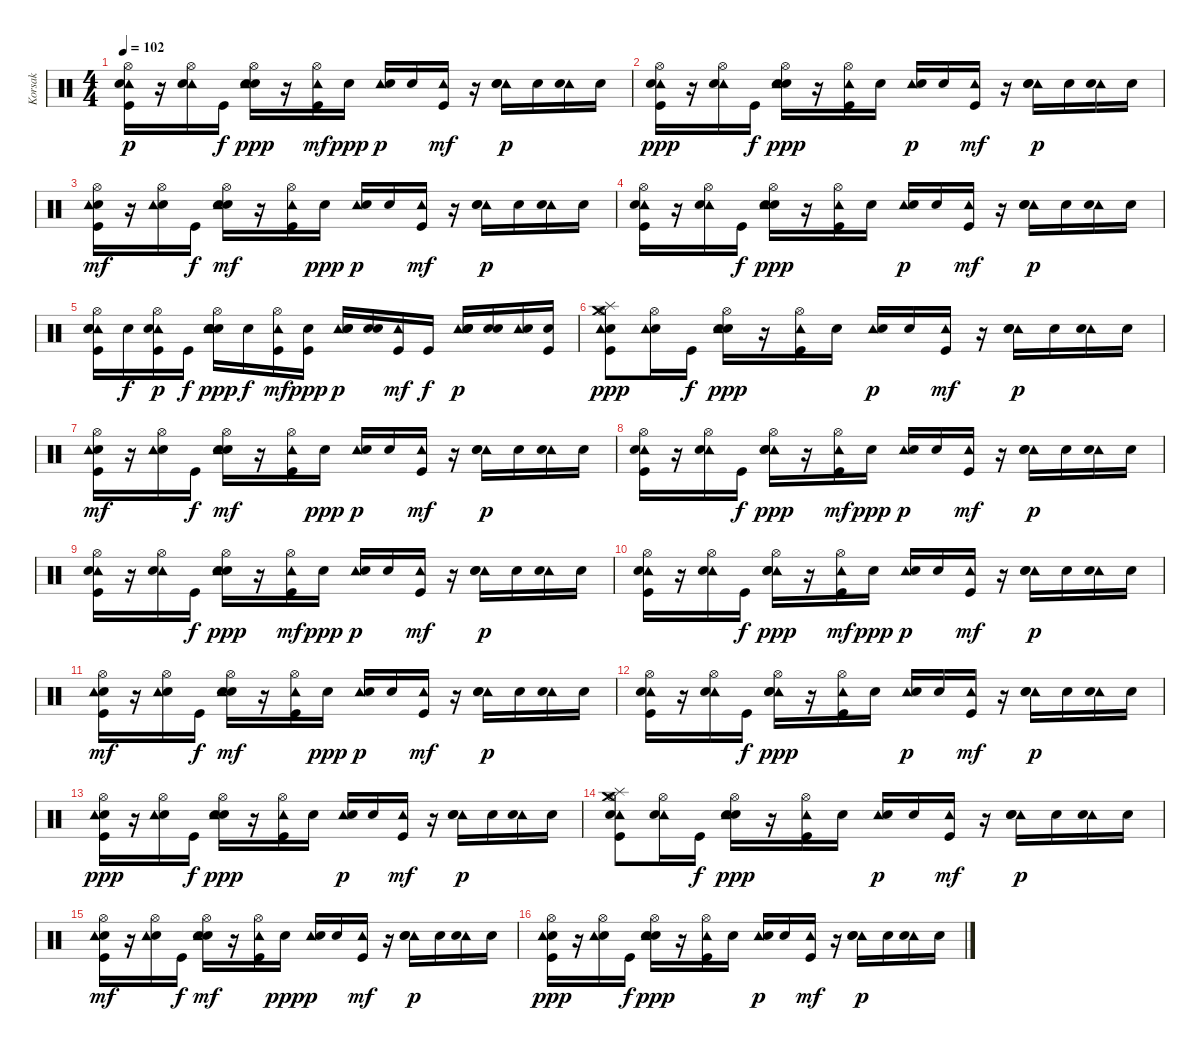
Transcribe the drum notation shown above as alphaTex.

\track ("Korsak" "Korsak") {instrument percussion}
\staff {score}
\articulation defaults
\ts (4 4)
\tempo 102
\clef neutral
\ks c
("Hi-Hat (open)" "Kick (hit)" "Tambourine (hit)" "Electric Snare (hit)").16{dy p} r.16 ("Hi-Hat (open)" "Tambourine (hit)" "Electric Snare (hit)").16 "Kick (hit)".16{dy f} ("Hi-Hat (open)" "Snare (hit) 2" "Tambourine (hit)" "Electric Snare (hit)").16{dy ppp} r.16 ("Hi-Hat (open)" "Kick (hit)" "Tambourine (hit)").16{dy mf} "Electric Snare (hit)".16{dy ppp} ("Tambourine (hit)" "Electric Snare (hit)").16{dy p} "Electric Snare (hit)".16 ("Kick (hit)" "Tambourine (hit)").16{dy mf} r.16 ("Tambourine (hit)" "Electric Snare (hit)" "Snare (hit) 2").16{dy p} "Electric Snare (hit)".16 ("Tambourine (hit)" "Electric Snare (hit)").16 "Electric Snare (hit)".16 |
("Kick (hit)" "Tambourine (hit)" "Electric Snare (hit)" "Hi-Hat (open)").16{dy ppp} r.16 ("Tambourine (hit)" "Electric Snare (hit)" "Hi-Hat (open)").16 "Kick (hit)".16{dy f} ("Snare (hit) 2" "Tambourine (hit)" "Electric Snare (hit)" "Hi-Hat (open)").16{dy ppp} r.16 ("Kick (hit)" "Tambourine (hit)" "Hi-Hat (open)").16 "Electric Snare (hit)".16 ("Tambourine (hit)" "Electric Snare (hit)").16{dy p} "Electric Snare (hit)".16 ("Kick (hit)" "Tambourine (hit)").16{dy mf} r.16 ("Tambourine (hit)" "Electric Snare (hit)" "Snare (hit) 2").16{dy p} "Electric Snare (hit)".16 ("Tambourine (hit)" "Electric Snare (hit)").16 "Electric Snare (hit)".16 |
("Hi-Hat (open)" "Electric Snare (hit)" "Kick (hit)" "Tambourine (hit)").16{dy mf} r.16 ("Hi-Hat (open)" "Electric Snare (hit)" "Tambourine (hit)").16 "Kick (hit)".16{dy f} ("Hi-Hat (open)" "Electric Snare (hit)" "Snare (hit) 2" "Tambourine (hit)").16{dy mf} r.16 ("Hi-Hat (open)" "Kick (hit)" "Tambourine (hit)").16 "Electric Snare (hit)".16{dy ppp} ("Tambourine (hit)" "Electric Snare (hit)").16{dy p} "Electric Snare (hit)".16 ("Kick (hit)" "Tambourine (hit)").16{dy mf} r.16 ("Tambourine (hit)" "Electric Snare (hit)" "Snare (hit) 2").16{dy p} "Electric Snare (hit)".16 ("Tambourine (hit)" "Electric Snare (hit)").16 "Electric Snare (hit)".16 |
("Kick (hit)" "Tambourine (hit)" "Hi-Hat (open)" "Electric Snare (hit)").16 r.16 ("Tambourine (hit)" "Hi-Hat (open)" "Electric Snare (hit)").16 "Kick (hit)".16{dy f} ("Snare (hit) 2" "Tambourine (hit)" "Hi-Hat (open)" "Electric Snare (hit)").16{dy ppp} r.16 ("Kick (hit)" "Tambourine (hit)" "Hi-Hat (open)").16 "Electric Snare (hit)".16 ("Tambourine (hit)" "Electric Snare (hit)").16{dy p} "Electric Snare (hit)".16 ("Kick (hit)" "Tambourine (hit)").16{dy mf} r.16 ("Tambourine (hit)" "Electric Snare (hit)" "Snare (hit) 2").16{dy p} "Electric Snare (hit)".16 ("Tambourine (hit)" "Electric Snare (hit)").16 "Electric Snare (hit)".16 |
("Kick (hit)" "Hi-Hat (open)" "Tambourine (hit)" "Electric Snare (hit)" "Snare (hit) 2").16 "Snare (hit) 2".16{dy f} ("Kick (hit)" "Hi-Hat (open)" "Tambourine (hit)" "Electric Snare (hit)").16{dy p} "Kick (hit)".16{dy f} ("Snare (hit) 2" "Hi-Hat (open)" "Tambourine (hit)" "Electric Snare (hit)" "Snare (hit) 2").16{dy ppp} "Snare (hit) 2".16{dy f} ("Kick (hit)" "Hi-Hat (open)" "Tambourine (hit)").16{dy mf} ("Kick (hit)" "Electric Snare (hit)").16{dy ppp} ("Tambourine (hit)" "Snare (hit) 2" "Electric Snare (hit)").16{dy p} ("Snare (hit) 2" "Electric Snare (hit)").16 ("Kick (hit)" "Tambourine (hit)").16{dy mf} "Kick (hit)".16{dy f} ("Tambourine (hit)" "Snare (hit) 2" "Electric Snare (hit)" "Snare (hit) 2").16{dy p} ("Snare (hit) 2" "Electric Snare (hit)").16 ("Tambourine (hit)" "Electric Snare (hit)").16 ("Kick (hit)" "Electric Snare (hit)").16 |
("Electric Snare (hit)" "Splash (hit)" "Crash medium (hit)" "Kick (hit)" "Tambourine (hit)" "Hi-Hat (open)").8{dy ppp} ("Electric Snare (hit)" "Tambourine (hit)" "Hi-Hat (open)").16 "Kick (hit)".16{dy f} ("Electric Snare (hit)" "Snare (hit) 2" "Tambourine (hit)" "Hi-Hat (open)").16{dy ppp} r.16 ("Kick (hit)" "Tambourine (hit)" "Hi-Hat (open)").16 "Electric Snare (hit)".16 ("Tambourine (hit)" "Electric Snare (hit)").16{dy p} "Electric Snare (hit)".16 ("Kick (hit)" "Tambourine (hit)").16{dy mf} r.16 ("Tambourine (hit)" "Electric Snare (hit)" "Snare (hit) 2").16{dy p} "Electric Snare (hit)".16 ("Tambourine (hit)" "Electric Snare (hit)").16 "Electric Snare (hit)".16 |
("Hi-Hat (open)" "Electric Snare (hit)" "Kick (hit)" "Tambourine (hit)").16{dy mf} r.16 ("Hi-Hat (open)" "Electric Snare (hit)" "Tambourine (hit)").16 "Kick (hit)".16{dy f} ("Hi-Hat (open)" "Electric Snare (hit)" "Snare (hit) 2" "Tambourine (hit)").16{dy mf} r.16 ("Hi-Hat (open)" "Kick (hit)" "Tambourine (hit)").16 "Electric Snare (hit)".16{dy ppp} ("Tambourine (hit)" "Electric Snare (hit)").16{dy p} "Electric Snare (hit)".16 ("Kick (hit)" "Tambourine (hit)").16{dy mf} r.16 ("Tambourine (hit)" "Electric Snare (hit)" "Snare (hit) 2").16{dy p} "Electric Snare (hit)".16 ("Tambourine (hit)" "Electric Snare (hit)").16 "Electric Snare (hit)".16 |
("Hi-Hat (open)" "Tambourine (hit)" "Electric Snare (hit)" "Kick (hit)").16 r.16 ("Hi-Hat (open)" "Tambourine (hit)" "Electric Snare (hit)").16 "Kick (hit)".16{dy f} ("Hi-Hat (open)" "Tambourine (hit)" "Electric Snare (hit)" "Snare (hit) 2").16{dy ppp} r.16 ("Hi-Hat (open)" "Tambourine (hit)" "Kick (hit)").16{dy mf} "Electric Snare (hit)".16{dy ppp} ("Tambourine (hit)" "Electric Snare (hit)").16{dy p} "Electric Snare (hit)".16 ("Tambourine (hit)" "Kick (hit)").16{dy mf} r.16 ("Tambourine (hit)" "Electric Snare (hit)" "Snare (hit) 2").16{dy p} "Electric Snare (hit)".16 ("Tambourine (hit)" "Electric Snare (hit)").16 "Electric Snare (hit)".16 |
("Hi-Hat (open)" "Kick (hit)" "Tambourine (hit)" "Electric Snare (hit)").16 r.16 ("Hi-Hat (open)" "Tambourine (hit)" "Electric Snare (hit)").16 "Kick (hit)".16{dy f} ("Hi-Hat (open)" "Snare (hit) 2" "Tambourine (hit)" "Electric Snare (hit)").16{dy ppp} r.16 ("Hi-Hat (open)" "Kick (hit)" "Tambourine (hit)").16{dy mf} "Electric Snare (hit)".16{dy ppp} ("Tambourine (hit)" "Electric Snare (hit)").16{dy p} "Electric Snare (hit)".16 ("Kick (hit)" "Tambourine (hit)").16{dy mf} r.16 ("Tambourine (hit)" "Electric Snare (hit)" "Snare (hit) 2").16{dy p} "Electric Snare (hit)".16 ("Tambourine (hit)" "Electric Snare (hit)").16 "Electric Snare (hit)".16 |
("Hi-Hat (open)" "Tambourine (hit)" "Kick (hit)" "Electric Snare (hit)").16 r.16 ("Hi-Hat (open)" "Tambourine (hit)" "Electric Snare (hit)").16 "Kick (hit)".16{dy f} ("Hi-Hat (open)" "Tambourine (hit)" "Snare (hit) 2" "Electric Snare (hit)").16{dy ppp} r.16 ("Hi-Hat (open)" "Tambourine (hit)" "Kick (hit)").16{dy mf} "Electric Snare (hit)".16{dy ppp} ("Tambourine (hit)" "Electric Snare (hit)").16{dy p} "Electric Snare (hit)".16 ("Tambourine (hit)" "Kick (hit)").16{dy mf} r.16 ("Tambourine (hit)" "Electric Snare (hit)" "Snare (hit) 2").16{dy p} "Electric Snare (hit)".16 ("Tambourine (hit)" "Electric Snare (hit)").16 "Electric Snare (hit)".16 |
("Hi-Hat (open)" "Electric Snare (hit)" "Tambourine (hit)" "Kick (hit)").16{dy mf} r.16 ("Hi-Hat (open)" "Electric Snare (hit)" "Tambourine (hit)").16 "Kick (hit)".16{dy f} ("Hi-Hat (open)" "Electric Snare (hit)" "Tambourine (hit)" "Snare (hit) 2").16{dy mf} r.16 ("Hi-Hat (open)" "Tambourine (hit)" "Kick (hit)").16 "Electric Snare (hit)".16{dy ppp} ("Tambourine (hit)" "Electric Snare (hit)").16{dy p} "Electric Snare (hit)".16 ("Tambourine (hit)" "Kick (hit)").16{dy mf} r.16 ("Tambourine (hit)" "Electric Snare (hit)" "Snare (hit) 2").16{dy p} "Electric Snare (hit)".16 ("Tambourine (hit)" "Electric Snare (hit)").16 "Electric Snare (hit)".16 |
("Tambourine (hit)" "Hi-Hat (open)" "Electric Snare (hit)" "Kick (hit)").16 r.16 ("Tambourine (hit)" "Hi-Hat (open)" "Electric Snare (hit)").16 "Kick (hit)".16{dy f} ("Tambourine (hit)" "Hi-Hat (open)" "Electric Snare (hit)" "Snare (hit) 2").16{dy ppp} r.16 ("Tambourine (hit)" "Hi-Hat (open)" "Kick (hit)").16 "Electric Snare (hit)".16 ("Tambourine (hit)" "Electric Snare (hit)").16{dy p} "Electric Snare (hit)".16 ("Tambourine (hit)" "Kick (hit)").16{dy mf} r.16 ("Tambourine (hit)" "Electric Snare (hit)" "Snare (hit) 2").16{dy p} "Electric Snare (hit)".16 ("Tambourine (hit)" "Electric Snare (hit)").16 "Electric Snare (hit)".16 |
("Electric Snare (hit)" "Tambourine (hit)" "Kick (hit)" "Hi-Hat (open)").16{dy ppp} r.16 ("Electric Snare (hit)" "Tambourine (hit)" "Hi-Hat (open)").16 "Kick (hit)".16{dy f} ("Electric Snare (hit)" "Tambourine (hit)" "Snare (hit) 2" "Hi-Hat (open)").16{dy ppp} r.16 ("Tambourine (hit)" "Kick (hit)" "Hi-Hat (open)").16 "Electric Snare (hit)".16 ("Tambourine (hit)" "Electric Snare (hit)").16{dy p} "Electric Snare (hit)".16 ("Tambourine (hit)" "Kick (hit)").16{dy mf} r.16 ("Tambourine (hit)" "Electric Snare (hit)" "Snare (hit) 2").16{dy p} "Electric Snare (hit)".16 ("Tambourine (hit)" "Electric Snare (hit)").16 "Electric Snare (hit)".16 |
("Splash (hit)" "Crash medium (hit)" "Kick (hit)" "Tambourine (hit)" "Hi-Hat (open)" "Electric Snare (hit)").8 ("Tambourine (hit)" "Hi-Hat (open)" "Electric Snare (hit)").16 "Kick (hit)".16{dy f} ("Snare (hit) 2" "Tambourine (hit)" "Hi-Hat (open)" "Electric Snare (hit)").16{dy ppp} r.16 ("Kick (hit)" "Tambourine (hit)" "Hi-Hat (open)").16 "Electric Snare (hit)".16 ("Tambourine (hit)" "Electric Snare (hit)").16{dy p} "Electric Snare (hit)".16 ("Kick (hit)" "Tambourine (hit)").16{dy mf} r.16 ("Tambourine (hit)" "Electric Snare (hit)" "Snare (hit) 2").16{dy p} "Electric Snare (hit)".16 ("Tambourine (hit)" "Electric Snare (hit)").16 "Electric Snare (hit)".16 |
("Kick (hit)" "Hi-Hat (open)" "Electric Snare (hit)" "Tambourine (hit)").16{dy mf} r.16 ("Hi-Hat (open)" "Electric Snare (hit)" "Tambourine (hit)").16 "Kick (hit)".16{dy f} ("Snare (hit) 2" "Hi-Hat (open)" "Electric Snare (hit)" "Tambourine (hit)").16{dy mf} r.16 ("Kick (hit)" "Hi-Hat (open)" "Tambourine (hit)").16 "Electric Snare (hit)".16{dy ppp} ("Tambourine (hit)" "Electric Snare (hit)").16{dy p} "Electric Snare (hit)".16 ("Kick (hit)" "Tambourine (hit)").16{dy mf} r.16 ("Tambourine (hit)" "Electric Snare (hit)" "Snare (hit) 2").16{dy p} "Electric Snare (hit)".16 ("Tambourine (hit)" "Electric Snare (hit)").16 "Electric Snare (hit)".16 |
("Electric Snare (hit)" "Tambourine (hit)" "Kick (hit)" "Hi-Hat (open)").16{dy ppp} r.16 ("Electric Snare (hit)" "Tambourine (hit)" "Hi-Hat (open)").16 "Kick (hit)".16{dy f} ("Electric Snare (hit)" "Tambourine (hit)" "Snare (hit) 2" "Hi-Hat (open)").16{dy ppp} r.16 ("Tambourine (hit)" "Kick (hit)" "Hi-Hat (open)").16 "Electric Snare (hit)".16 ("Tambourine (hit)" "Electric Snare (hit)").16{dy p} "Electric Snare (hit)".16 ("Tambourine (hit)" "Kick (hit)").16{dy mf} r.16 ("Tambourine (hit)" "Electric Snare (hit)" "Snare (hit) 2").16{dy p} "Electric Snare (hit)".16 ("Tambourine (hit)" "Electric Snare (hit)").16 "Electric Snare (hit)".16
